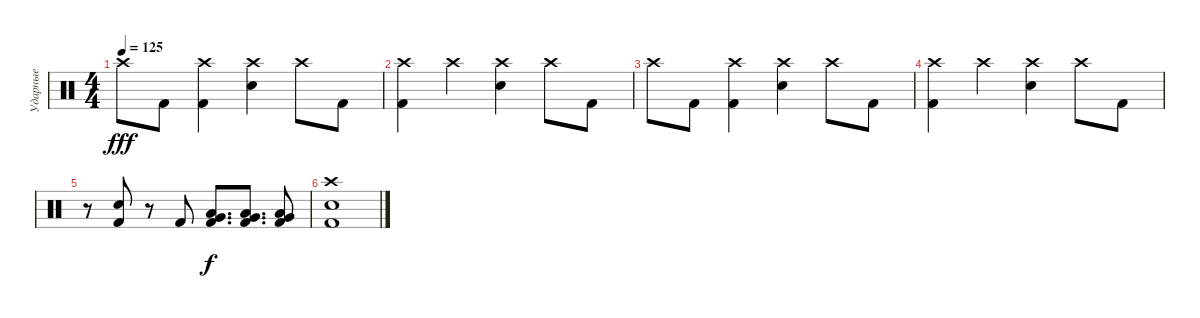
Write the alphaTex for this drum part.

\track ("Ударные" "Ударные") {instrument percussion}
\staff {score}
\articulation defaults
\ts (4 4)
\tempo 125
\clef neutral
\ks c "Crash high (hit)".8{dy fff} "Kick (hit) 2".8
("Crash high (hit)" "Kick (hit) 2").4 ("Crash high (hit)" "Snare (hit) 2").4 "Crash high (hit)".8 "Kick (hit) 2".8 |
("Crash high (hit)" "Kick (hit) 2").4 "Crash high (hit)".4 ("Crash high (hit)" "Snare (hit) 2").4 "Crash high (hit)".8 "Kick (hit) 2".8 |
"Crash high (hit)".8 "Kick (hit) 2".8 ("Crash high (hit)" "Kick (hit) 2").4 ("Crash high (hit)" "Snare (hit) 2").4 "Crash high (hit)".8 "Kick (hit) 2".8 |
("Crash high (hit)" "Kick (hit) 2").4 "Crash high (hit)".4 ("Crash high (hit)" "Snare (hit) 2").4 "Crash high (hit)".8 "Kick (hit) 2".8 |
r.8 ("Snare (hit) 2" "Kick (hit) 2").8 r.8 "Kick (hit) 2".8 ("Kick (hit) 2" "Low Tom (hit)" "Very Low Tom (hit)").8{d dy f} ("Kick (hit) 2" "Low Tom (hit)" "Very Low Tom (hit)").8{d} ("Kick (hit) 2" "Low Tom (hit)" "Very Low Tom (hit)").8 |
("Crash high (hit)" "Snare (hit) 2" "Kick (hit) 2").1
